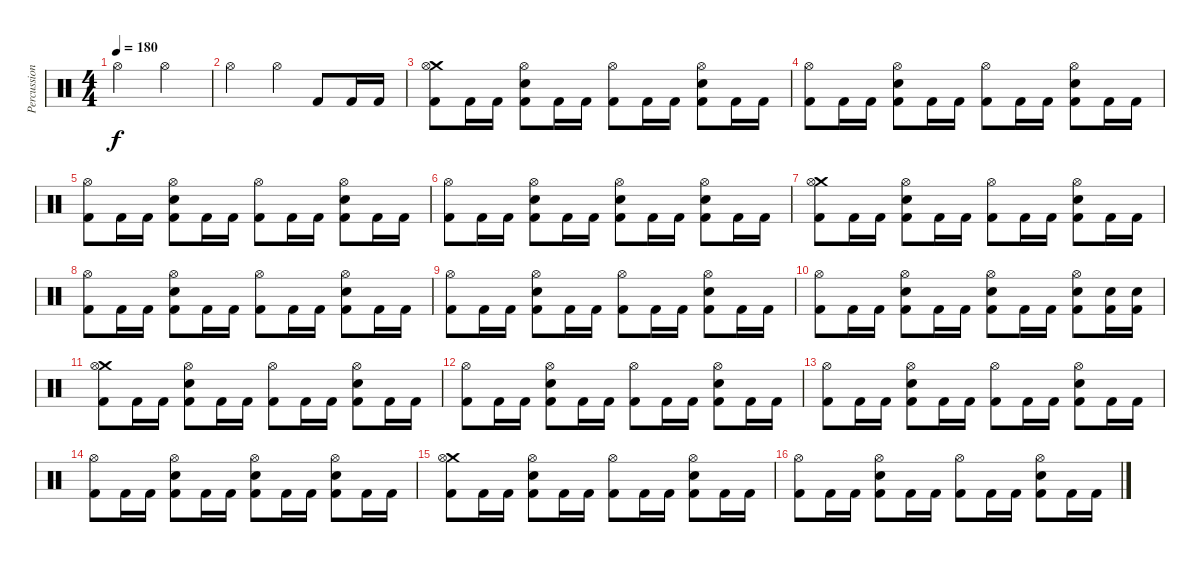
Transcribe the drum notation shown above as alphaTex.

\track ("Percussion" "Percussion") {instrument percussion}
\staff {score}
\articulation defaults
\ts (4 4)
\tempo 180
\clef neutral
\ks c "Hi-Hat (open)".2{dy f} "Hi-Hat (open)".2
|
"Hi-Hat (open)".2 "Hi-Hat (open)".4 "Kick (hit) 2".8 "Kick (hit) 2".16 "Kick (hit) 2".16 |
("Crash medium (hit)" "Hi-Hat (open)" "Kick (hit) 2").8 "Kick (hit) 2".16 "Kick (hit) 2".16 ("Hi-Hat (open)" "Electric Snare (hit)" "Kick (hit) 2").8 "Kick (hit) 2".16 "Kick (hit) 2".16 ("Hi-Hat (open)" "Kick (hit) 2").8 "Kick (hit) 2".16 "Kick (hit) 2".16 ("Hi-Hat (open)" "Electric Snare (hit)" "Kick (hit) 2").8 "Kick (hit) 2".16 "Kick (hit) 2".16 |
("Hi-Hat (open)" "Kick (hit) 2").8 "Kick (hit) 2".16 "Kick (hit) 2".16 ("Hi-Hat (open)" "Electric Snare (hit)" "Kick (hit) 2").8 "Kick (hit) 2".16 "Kick (hit) 2".16 ("Hi-Hat (open)" "Kick (hit) 2").8 "Kick (hit) 2".16 "Kick (hit) 2".16 ("Hi-Hat (open)" "Electric Snare (hit)" "Kick (hit) 2").8 "Kick (hit) 2".16 "Kick (hit) 2".16 |
("Hi-Hat (open)" "Kick (hit) 2").8 "Kick (hit) 2".16 "Kick (hit) 2".16 ("Hi-Hat (open)" "Electric Snare (hit)" "Kick (hit) 2").8 "Kick (hit) 2".16 "Kick (hit) 2".16 ("Hi-Hat (open)" "Kick (hit) 2").8 "Kick (hit) 2".16 "Kick (hit) 2".16 ("Hi-Hat (open)" "Electric Snare (hit)" "Kick (hit) 2").8 "Kick (hit) 2".16 "Kick (hit) 2".16 |
("Hi-Hat (open)" "Kick (hit) 2").8 "Kick (hit) 2".16 "Kick (hit) 2".16 ("Hi-Hat (open)" "Electric Snare (hit)" "Kick (hit) 2").8 "Kick (hit) 2".16 "Kick (hit) 2".16 ("Hi-Hat (open)" "Electric Snare (hit)" "Kick (hit) 2").8 "Kick (hit) 2".16 "Kick (hit) 2".16 ("Hi-Hat (open)" "Electric Snare (hit)" "Kick (hit) 2").8 "Kick (hit) 2".16 "Kick (hit) 2".16 |
("Crash medium (hit)" "Hi-Hat (open)" "Kick (hit) 2").8 "Kick (hit) 2".16 "Kick (hit) 2".16 ("Hi-Hat (open)" "Electric Snare (hit)" "Kick (hit) 2").8 "Kick (hit) 2".16 "Kick (hit) 2".16 ("Hi-Hat (open)" "Kick (hit) 2").8 "Kick (hit) 2".16 "Kick (hit) 2".16 ("Hi-Hat (open)" "Electric Snare (hit)" "Kick (hit) 2").8 "Kick (hit) 2".16 "Kick (hit) 2".16 |
("Hi-Hat (open)" "Kick (hit) 2").8 "Kick (hit) 2".16 "Kick (hit) 2".16 ("Hi-Hat (open)" "Electric Snare (hit)" "Kick (hit) 2").8 "Kick (hit) 2".16 "Kick (hit) 2".16 ("Hi-Hat (open)" "Kick (hit) 2").8 "Kick (hit) 2".16 "Kick (hit) 2".16 ("Hi-Hat (open)" "Electric Snare (hit)" "Kick (hit) 2").8 "Kick (hit) 2".16 "Kick (hit) 2".16 |
("Hi-Hat (open)" "Kick (hit) 2").8 "Kick (hit) 2".16 "Kick (hit) 2".16 ("Hi-Hat (open)" "Electric Snare (hit)" "Kick (hit) 2").8 "Kick (hit) 2".16 "Kick (hit) 2".16 ("Hi-Hat (open)" "Kick (hit) 2").8 "Kick (hit) 2".16 "Kick (hit) 2".16 ("Hi-Hat (open)" "Electric Snare (hit)" "Kick (hit) 2").8 "Kick (hit) 2".16 "Kick (hit) 2".16 |
("Hi-Hat (open)" "Kick (hit) 2").8 "Kick (hit) 2".16 "Kick (hit) 2".16 ("Hi-Hat (open)" "Electric Snare (hit)" "Kick (hit) 2").8 "Kick (hit) 2".16 "Kick (hit) 2".16 ("Hi-Hat (open)" "Electric Snare (hit)" "Kick (hit) 2").8 "Kick (hit) 2".16 "Kick (hit) 2".16 ("Hi-Hat (open)" "Electric Snare (hit)" "Kick (hit) 2").8 ("Electric Snare (hit)" "Kick (hit) 2").16 ("Electric Snare (hit)" "Kick (hit) 2").16 |
("Crash medium (hit)" "Hi-Hat (open)" "Kick (hit) 2").8 "Kick (hit) 2".16 "Kick (hit) 2".16 ("Hi-Hat (open)" "Electric Snare (hit)" "Kick (hit) 2").8 "Kick (hit) 2".16 "Kick (hit) 2".16 ("Hi-Hat (open)" "Kick (hit) 2").8 "Kick (hit) 2".16 "Kick (hit) 2".16 ("Hi-Hat (open)" "Electric Snare (hit)" "Kick (hit) 2").8 "Kick (hit) 2".16 "Kick (hit) 2".16 |
("Hi-Hat (open)" "Kick (hit) 2").8 "Kick (hit) 2".16 "Kick (hit) 2".16 ("Hi-Hat (open)" "Electric Snare (hit)" "Kick (hit) 2").8 "Kick (hit) 2".16 "Kick (hit) 2".16 ("Hi-Hat (open)" "Kick (hit) 2").8 "Kick (hit) 2".16 "Kick (hit) 2".16 ("Hi-Hat (open)" "Electric Snare (hit)" "Kick (hit) 2").8 "Kick (hit) 2".16 "Kick (hit) 2".16 |
("Hi-Hat (open)" "Kick (hit) 2").8 "Kick (hit) 2".16 "Kick (hit) 2".16 ("Hi-Hat (open)" "Electric Snare (hit)" "Kick (hit) 2").8 "Kick (hit) 2".16 "Kick (hit) 2".16 ("Hi-Hat (open)" "Kick (hit) 2").8 "Kick (hit) 2".16 "Kick (hit) 2".16 ("Hi-Hat (open)" "Electric Snare (hit)" "Kick (hit) 2").8 "Kick (hit) 2".16 "Kick (hit) 2".16 |
("Hi-Hat (open)" "Kick (hit) 2").8 "Kick (hit) 2".16 "Kick (hit) 2".16 ("Hi-Hat (open)" "Electric Snare (hit)" "Kick (hit) 2").8 "Kick (hit) 2".16 "Kick (hit) 2".16 ("Hi-Hat (open)" "Electric Snare (hit)" "Kick (hit) 2").8 "Kick (hit) 2".16 "Kick (hit) 2".16 ("Hi-Hat (open)" "Electric Snare (hit)" "Kick (hit) 2").8 "Kick (hit) 2".16 "Kick (hit) 2".16 |
("Crash medium (hit)" "Hi-Hat (open)" "Kick (hit) 2").8 "Kick (hit) 2".16 "Kick (hit) 2".16 ("Hi-Hat (open)" "Electric Snare (hit)" "Kick (hit) 2").8 "Kick (hit) 2".16 "Kick (hit) 2".16 ("Hi-Hat (open)" "Kick (hit) 2").8 "Kick (hit) 2".16 "Kick (hit) 2".16 ("Hi-Hat (open)" "Electric Snare (hit)" "Kick (hit) 2").8 "Kick (hit) 2".16 "Kick (hit) 2".16 |
("Hi-Hat (open)" "Kick (hit) 2").8 "Kick (hit) 2".16 "Kick (hit) 2".16 ("Hi-Hat (open)" "Electric Snare (hit)" "Kick (hit) 2").8 "Kick (hit) 2".16 "Kick (hit) 2".16 ("Hi-Hat (open)" "Kick (hit) 2").8 "Kick (hit) 2".16 "Kick (hit) 2".16 ("Hi-Hat (open)" "Electric Snare (hit)" "Kick (hit) 2").8 "Kick (hit) 2".16 "Kick (hit) 2".16
